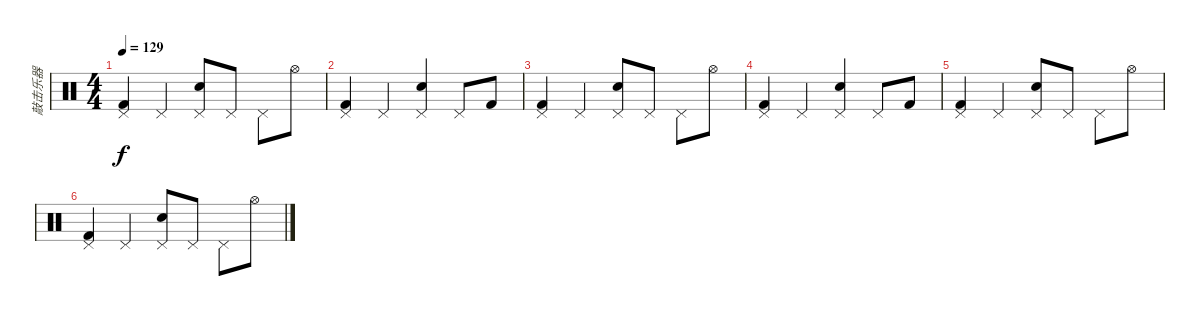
\track ("敲击乐器" "敲击乐器") {instrument percussion}
\staff {score}
\articulation defaults
\ts (4 4)
\tempo 129
\clef neutral
\ks c
("Pedal Hi-Hat (hit)" "Kick (hit) 2").4{dy f} "Pedal Hi-Hat (hit)".4 ("Pedal Hi-Hat (hit)" "Snare (hit) 2").8 "Pedal Hi-Hat (hit)".8 "Pedal Hi-Hat (hit)".8 "Hi-Hat (open)".8 |
("Pedal Hi-Hat (hit)" "Kick (hit) 2").4 "Pedal Hi-Hat (hit)".4 ("Pedal Hi-Hat (hit)" "Snare (hit) 2").4 "Pedal Hi-Hat (hit)".8 "Kick (hit) 2".8 |
("Pedal Hi-Hat (hit)" "Kick (hit) 2").4 "Pedal Hi-Hat (hit)".4 ("Pedal Hi-Hat (hit)" "Snare (hit) 2").8 "Pedal Hi-Hat (hit)".8 "Pedal Hi-Hat (hit)".8 "Hi-Hat (open)".8 |
("Pedal Hi-Hat (hit)" "Kick (hit) 2").4 "Pedal Hi-Hat (hit)".4 ("Pedal Hi-Hat (hit)" "Snare (hit) 2").4 "Pedal Hi-Hat (hit)".8 "Kick (hit) 2".8 |
("Pedal Hi-Hat (hit)" "Kick (hit) 2").4 "Pedal Hi-Hat (hit)".4 ("Pedal Hi-Hat (hit)" "Snare (hit) 2").8 "Pedal Hi-Hat (hit)".8 "Pedal Hi-Hat (hit)".8 "Hi-Hat (open)".8 |
("Pedal Hi-Hat (hit)" "Kick (hit) 2").4 "Pedal Hi-Hat (hit)".4 ("Pedal Hi-Hat (hit)" "Snare (hit) 2").8 "Pedal Hi-Hat (hit)".8 "Pedal Hi-Hat (hit)".8 "Hi-Hat (open)".8
